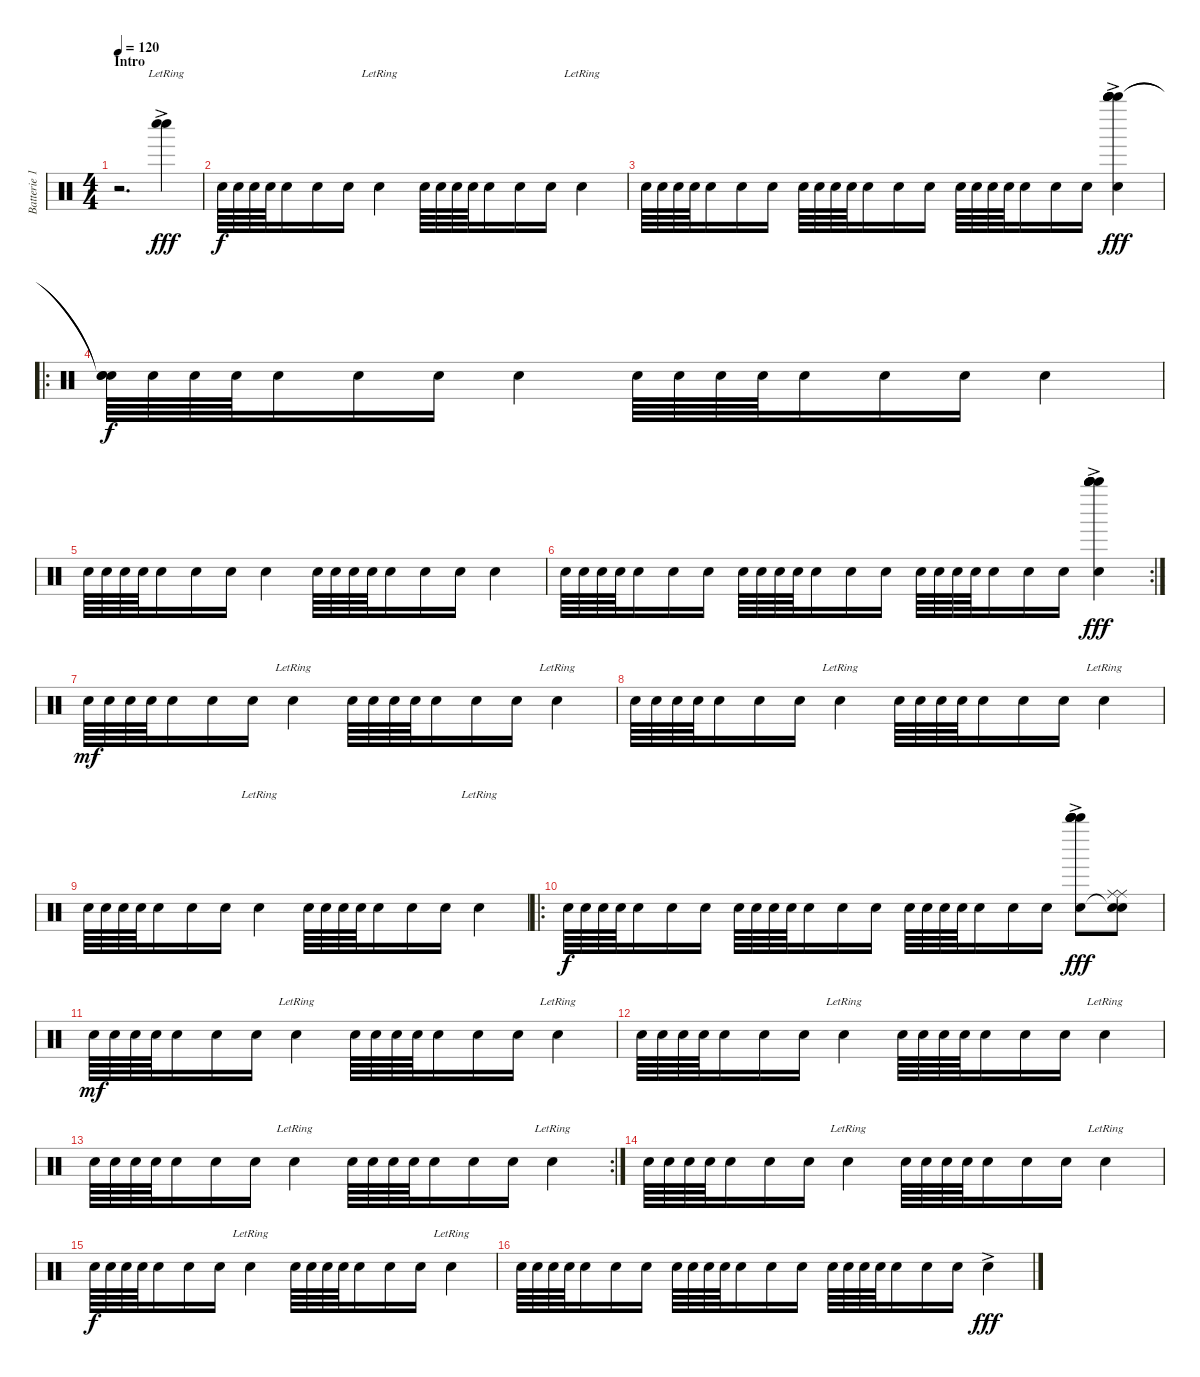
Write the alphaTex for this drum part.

\track ("Batterie 1 (armee theme)" "Batterie 1") {instrument percussion}
\staff {score}
\articulation defaults
\ts (4 4)
\section ("" "Intro")
\tempo 120
\clef neutral
\ks c
r.2{d dy fff} ("Whistle low (hit)"{ac} "Whistle low (hit)"{ac lr}).4 |
"Electric Snare (hit)".64{dy f} "Electric Snare (hit)".64 "Electric Snare (hit)".64 "Electric Snare (hit)".64 "Electric Snare (hit)".16 "Electric Snare (hit)".16 "Electric Snare (hit)".16 "Electric Snare (hit)"{lr}.4 "Electric Snare (hit)".64 "Electric Snare (hit)".64 "Electric Snare (hit)".64 "Electric Snare (hit)".64 "Electric Snare (hit)".16 "Electric Snare (hit)".16 "Electric Snare (hit)".16 "Electric Snare (hit)"{lr}.4 |
"Electric Snare (hit)".64 "Electric Snare (hit)".64 "Electric Snare (hit)".64 "Electric Snare (hit)".64 "Electric Snare (hit)".16 "Electric Snare (hit)".16 "Electric Snare (hit)".16 "Electric Snare (hit)".64 "Electric Snare (hit)".64 "Electric Snare (hit)".64 "Electric Snare (hit)".64 "Electric Snare (hit)".16 "Electric Snare (hit)".16 "Electric Snare (hit)".16 "Electric Snare (hit)".64 "Electric Snare (hit)".64 "Electric Snare (hit)".64 "Electric Snare (hit)".64 "Electric Snare (hit)".16 "Electric Snare (hit)".16 "Electric Snare (hit)".16 ("Whistle high (hit)"{ac} "Whistle high (hit)"{ac} "Whistle high (hit)"{ac} "Electric Snare (hit)"{ac} "Whistle high (hit)"{ac} "Whistle high (hit)"{ac}).4{dy fff} |
\ro
\section ("" "")
("Snare (hit)"{t} "Snare (hit)"{t} "Electric Snare (hit)").64{dy f} "Electric Snare (hit)".64 "Electric Snare (hit)".64 "Electric Snare (hit)".64 "Electric Snare (hit)".16 "Electric Snare (hit)".16 "Electric Snare (hit)".16 "Electric Snare (hit)".4 "Electric Snare (hit)".64 "Electric Snare (hit)".64 "Electric Snare (hit)".64 "Electric Snare (hit)".64 "Electric Snare (hit)".16 "Electric Snare (hit)".16 "Electric Snare (hit)".16 "Electric Snare (hit)".4 |
"Electric Snare (hit)".64 "Electric Snare (hit)".64 "Electric Snare (hit)".64 "Electric Snare (hit)".64 "Electric Snare (hit)".16 "Electric Snare (hit)".16 "Electric Snare (hit)".16 "Electric Snare (hit)".4 "Electric Snare (hit)".64 "Electric Snare (hit)".64 "Electric Snare (hit)".64 "Electric Snare (hit)".64 "Electric Snare (hit)".16 "Electric Snare (hit)".16 "Electric Snare (hit)".16 "Electric Snare (hit)".4 |
\rc 2 "Electric Snare (hit)".64 "Electric Snare (hit)".64 "Electric Snare (hit)".64 "Electric Snare (hit)".64 "Electric Snare (hit)".16 "Electric Snare (hit)".16 "Electric Snare (hit)".16 "Electric Snare (hit)".64 "Electric Snare (hit)".64 "Electric Snare (hit)".64 "Electric Snare (hit)".64 "Electric Snare (hit)".16 "Electric Snare (hit)".16 "Electric Snare (hit)".16 "Electric Snare (hit)".64 "Electric Snare (hit)".64 "Electric Snare (hit)".64 "Electric Snare (hit)".64 "Electric Snare (hit)".16 "Electric Snare (hit)".16 "Electric Snare (hit)".16
("Whistle high (hit)"{ac} "Whistle high (hit)"{ac} "Whistle high (hit)"{ac} "Electric Snare (hit)"{ac} "Whistle high (hit)"{ac} "Whistle high (hit)"{ac}).4{dy fff} |
\section ("" "")
"Electric Snare (hit)".64{dy mf} "Electric Snare (hit)".64 "Electric Snare (hit)".64 "Electric Snare (hit)".64 "Electric Snare (hit)".16 "Electric Snare (hit)".16 "Electric Snare (hit)".16 "Electric Snare (hit)"{lr}.4 "Electric Snare (hit)".64 "Electric Snare (hit)".64 "Electric Snare (hit)".64 "Electric Snare (hit)".64 "Electric Snare (hit)".16 "Electric Snare (hit)".16 "Electric Snare (hit)".16 "Electric Snare (hit)"{lr}.4 |
"Electric Snare (hit)".64 "Electric Snare (hit)".64 "Electric Snare (hit)".64 "Electric Snare (hit)".64 "Electric Snare (hit)".16 "Electric Snare (hit)".16 "Electric Snare (hit)".16 "Electric Snare (hit)"{lr}.4 "Electric Snare (hit)".64 "Electric Snare (hit)".64 "Electric Snare (hit)".64 "Electric Snare (hit)".64 "Electric Snare (hit)".16 "Electric Snare (hit)".16 "Electric Snare (hit)".16 "Electric Snare (hit)"{lr}.4 |
"Electric Snare (hit)".64 "Electric Snare (hit)".64 "Electric Snare (hit)".64 "Electric Snare (hit)".64 "Electric Snare (hit)".16 "Electric Snare (hit)".16 "Electric Snare (hit)".16 "Electric Snare (hit)"{lr}.4 "Electric Snare (hit)".64 "Electric Snare (hit)".64 "Electric Snare (hit)".64 "Electric Snare (hit)".64 "Electric Snare (hit)".16 "Electric Snare (hit)".16 "Electric Snare (hit)".16 "Electric Snare (hit)"{lr}.4 |
\ro "Electric Snare (hit)".64{dy f} "Electric Snare (hit)".64 "Electric Snare (hit)".64 "Electric Snare (hit)".64 "Electric Snare (hit)".16 "Electric Snare (hit)".16 "Electric Snare (hit)".16 "Electric Snare (hit)".64 "Electric Snare (hit)".64 "Electric Snare (hit)".64 "Electric Snare (hit)".64 "Electric Snare (hit)".16 "Electric Snare (hit)".16 "Electric Snare (hit)".16 "Electric Snare (hit)".64 "Electric Snare (hit)".64 "Electric Snare (hit)".64 "Electric Snare (hit)".64 "Electric Snare (hit)".16 "Electric Snare (hit)".16 "Electric Snare (hit)".16
("Whistle high (hit)"{ac} "Whistle high (hit)"{ac} "Whistle high (hit)"{ac} "Electric Snare (hit)"{ac} "Whistle high (hit)"{ac} "Whistle high (hit)"{ac}).8{dy fff} ("Ride (middle)" "Ride (middle)" "Electric Snare (hit)" "Snare (hit)"{t}).8 |
"Electric Snare (hit)".64{dy mf} "Electric Snare (hit)".64 "Electric Snare (hit)".64 "Electric Snare (hit)".64 "Electric Snare (hit)".16 "Electric Snare (hit)".16 "Electric Snare (hit)".16 "Electric Snare (hit)"{lr}.4 "Electric Snare (hit)".64 "Electric Snare (hit)".64 "Electric Snare (hit)".64 "Electric Snare (hit)".64 "Electric Snare (hit)".16 "Electric Snare (hit)".16 "Electric Snare (hit)".16 "Electric Snare (hit)"{lr}.4 |
"Electric Snare (hit)".64 "Electric Snare (hit)".64 "Electric Snare (hit)".64 "Electric Snare (hit)".64 "Electric Snare (hit)".16 "Electric Snare (hit)".16 "Electric Snare (hit)".16 "Electric Snare (hit)"{lr}.4 "Electric Snare (hit)".64 "Electric Snare (hit)".64 "Electric Snare (hit)".64 "Electric Snare (hit)".64 "Electric Snare (hit)".16 "Electric Snare (hit)".16 "Electric Snare (hit)".16 "Electric Snare (hit)"{lr}.4 |
\rc 2 "Electric Snare (hit)".64 "Electric Snare (hit)".64 "Electric Snare (hit)".64 "Electric Snare (hit)".64 "Electric Snare (hit)".16 "Electric Snare (hit)".16 "Electric Snare (hit)".16 "Electric Snare (hit)"{lr}.4 "Electric Snare (hit)".64 "Electric Snare (hit)".64 "Electric Snare (hit)".64 "Electric Snare (hit)".64 "Electric Snare (hit)".16 "Electric Snare (hit)".16 "Electric Snare (hit)".16 "Electric Snare (hit)"{lr}.4
|
"Electric Snare (hit)".64 "Electric Snare (hit)".64 "Electric Snare (hit)".64 "Electric Snare (hit)".64 "Electric Snare (hit)".16 "Electric Snare (hit)".16 "Electric Snare (hit)".16 "Electric Snare (hit)"{lr}.4 "Electric Snare (hit)".64 "Electric Snare (hit)".64 "Electric Snare (hit)".64 "Electric Snare (hit)".64 "Electric Snare (hit)".16 "Electric Snare (hit)".16 "Electric Snare (hit)".16 "Electric Snare (hit)"{lr}.4 |
\section ("" "")
"Electric Snare (hit)".64{dy f} "Electric Snare (hit)".64 "Electric Snare (hit)".64 "Electric Snare (hit)".64 "Electric Snare (hit)".16 "Electric Snare (hit)".16 "Electric Snare (hit)".16 "Electric Snare (hit)"{lr}.4 "Electric Snare (hit)".64 "Electric Snare (hit)".64 "Electric Snare (hit)".64 "Electric Snare (hit)".64 "Electric Snare (hit)".16 "Electric Snare (hit)".16 "Electric Snare (hit)".16 "Electric Snare (hit)"{lr}.4 |
"Electric Snare (hit)".64 "Electric Snare (hit)".64 "Electric Snare (hit)".64 "Electric Snare (hit)".64 "Electric Snare (hit)".16 "Electric Snare (hit)".16 "Electric Snare (hit)".16 "Electric Snare (hit)".64 "Electric Snare (hit)".64 "Electric Snare (hit)".64 "Electric Snare (hit)".64 "Electric Snare (hit)".16 "Electric Snare (hit)".16 "Electric Snare (hit)".16 "Electric Snare (hit)".64 "Electric Snare (hit)".64 "Electric Snare (hit)".64 "Electric Snare (hit)".64 "Electric Snare (hit)".16 "Electric Snare (hit)".16 "Electric Snare (hit)".16 "Electric Snare (hit)"{ac}.4{dy fff}
